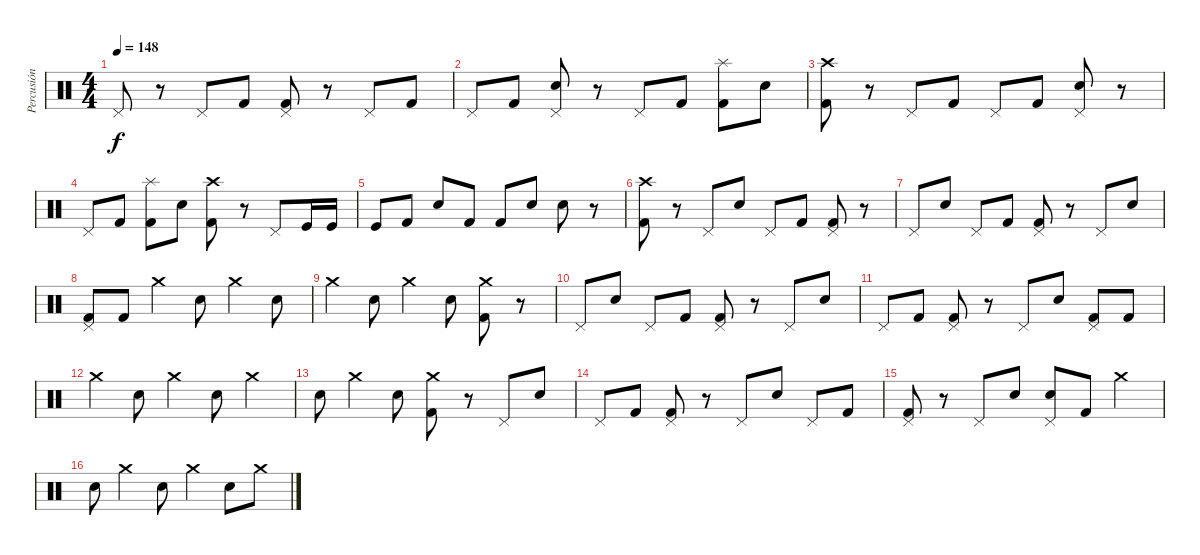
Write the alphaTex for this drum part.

\track ("Percusión" "Percusión") {instrument percussion}
\staff {score}
\articulation defaults
\ts (4 4)
\tempo 148
\clef neutral
\ks c "Pedal Hi-Hat (hit)".8{dy f}
r.8 "Pedal Hi-Hat (hit)".8 "Kick (hit) 2".8 ("Pedal Hi-Hat (hit)" "Kick (hit) 2").8 r.8 "Pedal Hi-Hat (hit)".8 "Kick (hit) 2".8 |
"Pedal Hi-Hat (hit)".8 "Kick (hit) 2".8 ("Pedal Hi-Hat (hit)" "Snare (hit) 2").8 r.8 "Pedal Hi-Hat (hit)".8 "Kick (hit) 2".8 ("Splash (hit)" "Kick (hit) 2").8 "Snare (hit) 2".8 |
("Crash high (hit)" "Kick (hit) 2").8 r.8 "Pedal Hi-Hat (hit)".8 "Kick (hit) 2".8 "Pedal Hi-Hat (hit)".8 "Kick (hit) 2".8 ("Pedal Hi-Hat (hit)" "Snare (hit) 2").8 r.8 |
"Pedal Hi-Hat (hit)".8 "Kick (hit) 2".8 ("Splash (hit)" "Kick (hit) 2").8 "Snare (hit) 2".8 ("Crash high (hit)" "Kick (hit) 2").8 r.8 "Pedal Hi-Hat (hit)".8 "Kick (hit)".16 "Kick (hit)".16 |
"Kick (hit)".8 "Kick (hit) 2".8 "Snare (hit) 2".8 "Kick (hit) 2".8 "Kick (hit) 2".8 "Snare (hit) 2".8 "Snare (hit) 2".8 r.8 |
("Crash high (hit)" "Kick (hit) 2").8 r.8 "Pedal Hi-Hat (hit)".8 "Snare (hit) 2".8 "Pedal Hi-Hat (hit)".8 "Kick (hit) 2".8 ("Pedal Hi-Hat (hit)" "Kick (hit) 2").8 r.8 |
"Pedal Hi-Hat (hit)".8 "Snare (hit) 2".8 "Pedal Hi-Hat (hit)".8 "Kick (hit) 2".8 ("Pedal Hi-Hat (hit)" "Kick (hit) 2").8 r.8 "Pedal Hi-Hat (hit)".8 "Snare (hit) 2".8 |
("Pedal Hi-Hat (hit)" "Kick (hit) 2").8 "Kick (hit) 2".8 "Crash medium (hit)".4 "Snare (hit) 2".8 "Crash medium (hit)".4 "Snare (hit) 2".8 |
"Crash medium (hit)".4 "Snare (hit) 2".8 "Crash medium (hit)".4 "Snare (hit) 2".8 ("Crash medium (hit)" "Kick (hit) 2").8 r.8 |
"Pedal Hi-Hat (hit)".8 "Snare (hit) 2".8 "Pedal Hi-Hat (hit)".8 "Kick (hit) 2".8 ("Pedal Hi-Hat (hit)" "Kick (hit) 2").8 r.8 "Pedal Hi-Hat (hit)".8 "Snare (hit) 2".8 |
"Pedal Hi-Hat (hit)".8 "Kick (hit) 2".8 ("Pedal Hi-Hat (hit)" "Kick (hit) 2").8 r.8 "Pedal Hi-Hat (hit)".8 "Snare (hit) 2".8 ("Pedal Hi-Hat (hit)" "Kick (hit) 2").8 "Kick (hit) 2".8 |
"Crash medium (hit)".4 "Snare (hit) 2".8 "Crash medium (hit)".4 "Snare (hit) 2".8 "Crash medium (hit)".4 |
"Snare (hit) 2".8 "Crash medium (hit)".4 "Snare (hit) 2".8 ("Crash medium (hit)" "Kick (hit) 2").8 r.8 "Pedal Hi-Hat (hit)".8 "Snare (hit) 2".8 |
"Pedal Hi-Hat (hit)".8 "Kick (hit) 2".8 ("Pedal Hi-Hat (hit)" "Kick (hit) 2").8 r.8 "Pedal Hi-Hat (hit)".8 "Snare (hit) 2".8 "Pedal Hi-Hat (hit)".8 "Kick (hit) 2".8 |
("Pedal Hi-Hat (hit)" "Kick (hit) 2").8 r.8 "Pedal Hi-Hat (hit)".8 "Snare (hit) 2".8 ("Pedal Hi-Hat (hit)" "Snare (hit) 2").8 "Kick (hit) 2".8 "Crash medium (hit)".4 |
"Snare (hit) 2".8 "Crash medium (hit)".4 "Snare (hit) 2".8 "Crash medium (hit)".4 "Snare (hit) 2".8 "Crash medium (hit)".8
